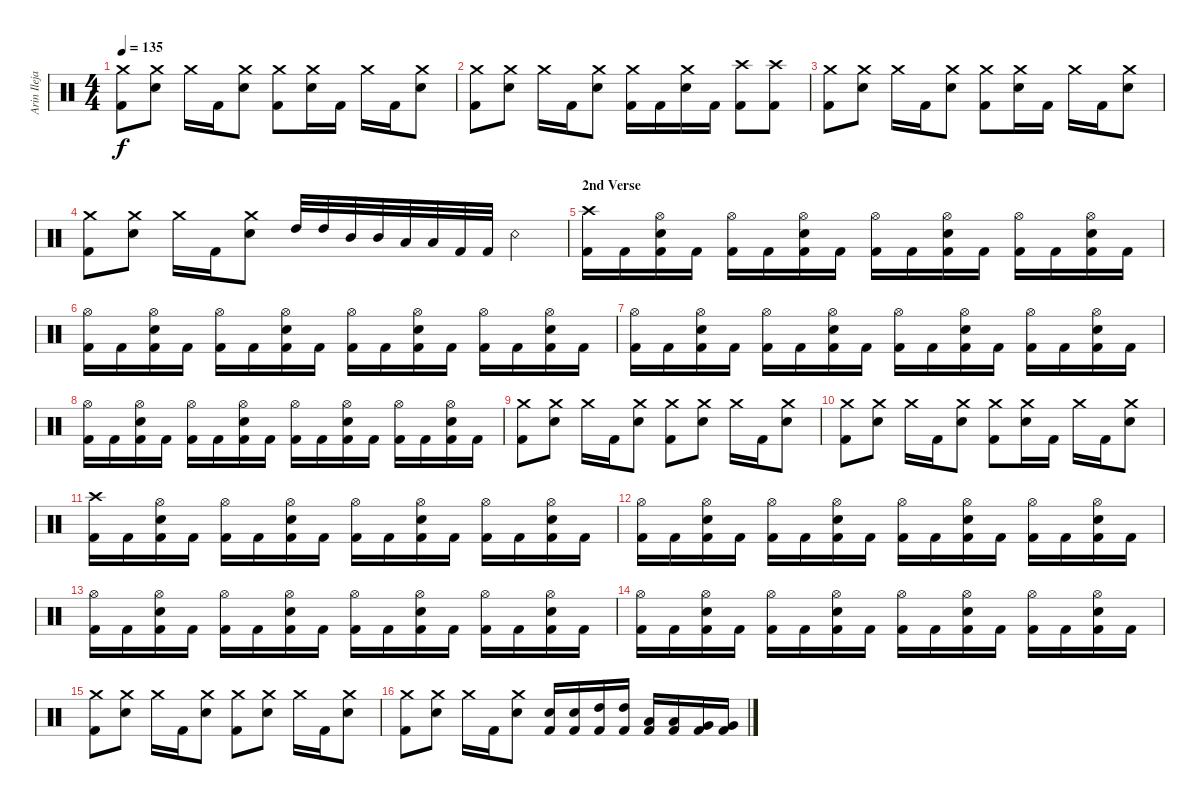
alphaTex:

\track ("Arin Ilejay" "Arin Ileja") {instrument percussion}
\staff {score}
\articulation defaults
\ts (4 4)
\section ("" "")
\tempo 135
\clef neutral
\ks c
("Crash medium (hit)" "Kick (hit) 2").8{dy f} ("Snare (hit) 2" "Crash medium (hit)").8 "Crash medium (hit)".16 "Kick (hit) 2".16 ("Snare (hit) 2" "Crash medium (hit)").8 ("Crash medium (hit)" "Kick (hit) 2").8 ("Snare (hit) 2" "Crash medium (hit)").16 "Kick (hit) 2".16 "Crash medium (hit)".16 "Kick (hit) 2".16 ("Snare (hit) 2" "Crash medium (hit)").8 |
("Crash medium (hit)" "Kick (hit) 2").8 ("Snare (hit) 2" "Crash medium (hit)").8 "Crash medium (hit)".16 "Kick (hit) 2".16 ("Snare (hit) 2" "Crash medium (hit)").8 ("Crash medium (hit)" "Kick (hit) 2").16 "Kick (hit) 2".16 ("Snare (hit) 2" "Crash medium (hit)").16 "Kick (hit) 2".16 ("Kick (hit) 2" "Crash high (hit)").8 ("Crash high (hit)" "Kick (hit) 2").8 |
("Crash medium (hit)" "Kick (hit) 2").8 ("Snare (hit) 2" "Crash medium (hit)").8 "Crash medium (hit)".16 "Kick (hit) 2".16 ("Snare (hit) 2" "Crash medium (hit)").8 ("Crash medium (hit)" "Kick (hit) 2").8 ("Snare (hit) 2" "Crash medium (hit)").16 "Kick (hit) 2".16 "Crash medium (hit)".16 "Kick (hit) 2".16 ("Snare (hit) 2" "Crash medium (hit)").8 |
("Crash medium (hit)" "Kick (hit) 2").8 ("Snare (hit) 2" "Crash medium (hit)").8 "Crash medium (hit)".16 "Kick (hit) 2".16 ("Snare (hit) 2" "Crash medium (hit)").8 "High Tom (hit)".32 "High Tom (hit)".32 "Mid Tom (hit)".32 "Mid Tom (hit)".32 "Low Tom (hit)".32 "Low Tom (hit)".32 "Kick (hit) 2".32 "Kick (hit) 2".32 "Snare (rim shot)".4 |
\section ("" "2nd Verse")
("Kick (hit) 2" "Crash high (hit)").16 "Kick (hit) 2".16 ("Kick (hit) 2" "Snare (hit) 2" "Hi-Hat (open)").16 "Kick (hit) 2".16 ("Kick (hit) 2" "Hi-Hat (open)").16 "Kick (hit) 2".16 ("Kick (hit) 2" "Snare (hit) 2" "Hi-Hat (open)").16 "Kick (hit) 2".16 ("Kick (hit) 2" "Hi-Hat (open)").16 "Kick (hit) 2".16 ("Kick (hit) 2" "Snare (hit) 2" "Hi-Hat (open)").16 "Kick (hit) 2".16 ("Kick (hit) 2" "Hi-Hat (open)").16 "Kick (hit) 2".16 ("Kick (hit) 2" "Snare (hit) 2" "Hi-Hat (open)").16 "Kick (hit) 2".16 |
("Kick (hit) 2" "Hi-Hat (open)").16 "Kick (hit) 2".16 ("Kick (hit) 2" "Snare (hit) 2" "Hi-Hat (open)").16 "Kick (hit) 2".16 ("Kick (hit) 2" "Hi-Hat (open)").16 "Kick (hit) 2".16 ("Kick (hit) 2" "Snare (hit) 2" "Hi-Hat (open)").16 "Kick (hit) 2".16 ("Kick (hit) 2" "Hi-Hat (open)").16 "Kick (hit) 2".16 ("Kick (hit) 2" "Snare (hit) 2" "Hi-Hat (open)").16 "Kick (hit) 2".16 ("Kick (hit) 2" "Hi-Hat (open)").16 "Kick (hit) 2".16 ("Kick (hit) 2" "Snare (hit) 2" "Hi-Hat (open)").16 "Kick (hit) 2".16 |
("Kick (hit) 2" "Hi-Hat (open)").16 "Kick (hit) 2".16 ("Kick (hit) 2" "Snare (hit) 2" "Hi-Hat (open)").16 "Kick (hit) 2".16 ("Kick (hit) 2" "Hi-Hat (open)").16 "Kick (hit) 2".16 ("Kick (hit) 2" "Snare (hit) 2" "Hi-Hat (open)").16 "Kick (hit) 2".16 ("Kick (hit) 2" "Hi-Hat (open)").16 "Kick (hit) 2".16 ("Kick (hit) 2" "Snare (hit) 2" "Hi-Hat (open)").16 "Kick (hit) 2".16 ("Kick (hit) 2" "Hi-Hat (open)").16 "Kick (hit) 2".16 ("Kick (hit) 2" "Snare (hit) 2" "Hi-Hat (open)").16 "Kick (hit) 2".16 |
("Kick (hit) 2" "Hi-Hat (open)").16 "Kick (hit) 2".16 ("Kick (hit) 2" "Snare (hit) 2" "Hi-Hat (open)").16 "Kick (hit) 2".16 ("Kick (hit) 2" "Hi-Hat (open)").16 "Kick (hit) 2".16 ("Kick (hit) 2" "Snare (hit) 2" "Hi-Hat (open)").16 "Kick (hit) 2".16 ("Kick (hit) 2" "Hi-Hat (open)").16 "Kick (hit) 2".16 ("Kick (hit) 2" "Snare (hit) 2" "Hi-Hat (open)").16 "Kick (hit) 2".16 ("Kick (hit) 2" "Hi-Hat (open)").16 "Kick (hit) 2".16 ("Kick (hit) 2" "Snare (hit) 2" "Hi-Hat (open)").16 "Kick (hit) 2".16 |
("Crash medium (hit)" "Kick (hit) 2").8 ("Snare (hit) 2" "Crash medium (hit)").8 "Crash medium (hit)".16 "Kick (hit) 2".16 ("Snare (hit) 2" "Crash medium (hit)").8 ("Crash medium (hit)" "Kick (hit) 2").8 ("Snare (hit) 2" "Crash medium (hit)").8 "Crash medium (hit)".16 "Kick (hit) 2".16 ("Snare (hit) 2" "Crash medium (hit)").8 |
("Crash medium (hit)" "Kick (hit) 2").8 ("Snare (hit) 2" "Crash medium (hit)").8 "Crash medium (hit)".16 "Kick (hit) 2".16 ("Snare (hit) 2" "Crash medium (hit)").8 ("Crash medium (hit)" "Kick (hit) 2").8 ("Snare (hit) 2" "Crash medium (hit)").16 "Kick (hit) 2".16 "Crash medium (hit)".16 "Kick (hit) 2".16 ("Snare (hit) 2" "Crash medium (hit)").8 |
("Kick (hit) 2" "Crash high (hit)").16 "Kick (hit) 2".16 ("Kick (hit) 2" "Snare (hit) 2" "Hi-Hat (open)").16 "Kick (hit) 2".16 ("Kick (hit) 2" "Hi-Hat (open)").16 "Kick (hit) 2".16 ("Kick (hit) 2" "Snare (hit) 2" "Hi-Hat (open)").16 "Kick (hit) 2".16 ("Kick (hit) 2" "Hi-Hat (open)").16 "Kick (hit) 2".16 ("Kick (hit) 2" "Snare (hit) 2" "Hi-Hat (open)").16 "Kick (hit) 2".16 ("Kick (hit) 2" "Hi-Hat (open)").16 "Kick (hit) 2".16 ("Kick (hit) 2" "Snare (hit) 2" "Hi-Hat (open)").16 "Kick (hit) 2".16 |
("Kick (hit) 2" "Hi-Hat (open)").16 "Kick (hit) 2".16 ("Kick (hit) 2" "Snare (hit) 2" "Hi-Hat (open)").16 "Kick (hit) 2".16 ("Kick (hit) 2" "Hi-Hat (open)").16 "Kick (hit) 2".16 ("Kick (hit) 2" "Snare (hit) 2" "Hi-Hat (open)").16 "Kick (hit) 2".16 ("Kick (hit) 2" "Hi-Hat (open)").16 "Kick (hit) 2".16 ("Kick (hit) 2" "Snare (hit) 2" "Hi-Hat (open)").16 "Kick (hit) 2".16 ("Kick (hit) 2" "Hi-Hat (open)").16 "Kick (hit) 2".16 ("Kick (hit) 2" "Snare (hit) 2" "Hi-Hat (open)").16 "Kick (hit) 2".16 |
("Kick (hit) 2" "Hi-Hat (open)").16 "Kick (hit) 2".16 ("Kick (hit) 2" "Snare (hit) 2" "Hi-Hat (open)").16 "Kick (hit) 2".16 ("Kick (hit) 2" "Hi-Hat (open)").16 "Kick (hit) 2".16 ("Kick (hit) 2" "Snare (hit) 2" "Hi-Hat (open)").16 "Kick (hit) 2".16 ("Kick (hit) 2" "Hi-Hat (open)").16 "Kick (hit) 2".16 ("Kick (hit) 2" "Snare (hit) 2" "Hi-Hat (open)").16 "Kick (hit) 2".16 ("Kick (hit) 2" "Hi-Hat (open)").16 "Kick (hit) 2".16 ("Kick (hit) 2" "Snare (hit) 2" "Hi-Hat (open)").16 "Kick (hit) 2".16 |
("Kick (hit) 2" "Hi-Hat (open)").16 "Kick (hit) 2".16 ("Kick (hit) 2" "Snare (hit) 2" "Hi-Hat (open)").16 "Kick (hit) 2".16 ("Kick (hit) 2" "Hi-Hat (open)").16 "Kick (hit) 2".16 ("Kick (hit) 2" "Snare (hit) 2" "Hi-Hat (open)").16 "Kick (hit) 2".16 ("Kick (hit) 2" "Hi-Hat (open)").16 "Kick (hit) 2".16 ("Kick (hit) 2" "Snare (hit) 2" "Hi-Hat (open)").16 "Kick (hit) 2".16 ("Kick (hit) 2" "Hi-Hat (open)").16 "Kick (hit) 2".16 ("Kick (hit) 2" "Snare (hit) 2" "Hi-Hat (open)").16 "Kick (hit) 2".16 |
("Crash medium (hit)" "Kick (hit) 2").8 ("Snare (hit) 2" "Crash medium (hit)").8 "Crash medium (hit)".16 "Kick (hit) 2".16 ("Snare (hit) 2" "Crash medium (hit)").8 ("Crash medium (hit)" "Kick (hit) 2").8 ("Snare (hit) 2" "Crash medium (hit)").8 "Crash medium (hit)".16 "Kick (hit) 2".16 ("Snare (hit) 2" "Crash medium (hit)").8 |
("Crash medium (hit)" "Kick (hit) 2").8 ("Snare (hit) 2" "Crash medium (hit)").8 "Crash medium (hit)".16 "Kick (hit) 2".16 ("Snare (hit) 2" "Crash medium (hit)").8 ("Snare (hit) 2" "Kick (hit) 2").16 ("Snare (hit) 2" "Kick (hit) 2").16 ("High Tom (hit)" "Kick (hit) 2").16 ("High Tom (hit)" "Kick (hit) 2").16 ("Low Tom (hit)" "Kick (hit) 2").16 ("Low Tom (hit)" "Kick (hit) 2").16 ("Very Low Tom (hit)" "Kick (hit) 2").16 ("Very Low Tom (hit)" "Kick (hit) 2").16
